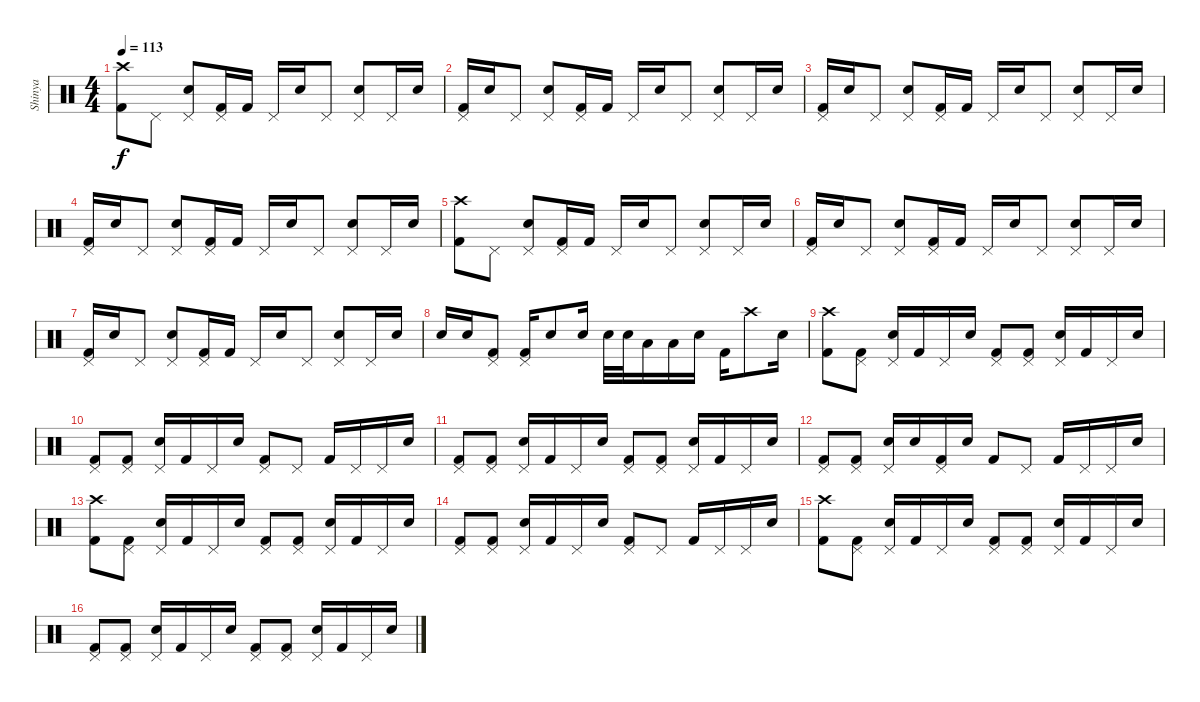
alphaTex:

\track ("Shinya" "Shinya") {instrument percussion}
\staff {score}
\articulation defaults
\ts (4 4)
\tempo 113
\clef neutral
\ks c
("Crash high (hit)" "Kick (hit) 2").8{dy f} "Pedal Hi-Hat (hit)".8 ("Pedal Hi-Hat (hit)" "Electric Snare (hit)").8 ("Pedal Hi-Hat (hit)" "Kick (hit) 2").16 "Kick (hit) 2".16 "Pedal Hi-Hat (hit)".16 "Electric Snare (hit)".16 "Pedal Hi-Hat (hit)".8 ("Pedal Hi-Hat (hit)" "Electric Snare (hit)").8 "Pedal Hi-Hat (hit)".16 "Electric Snare (hit)".16 |
("Pedal Hi-Hat (hit)" "Kick (hit) 2").16 "Electric Snare (hit)".16 "Pedal Hi-Hat (hit)".8 ("Pedal Hi-Hat (hit)" "Electric Snare (hit)").8 ("Pedal Hi-Hat (hit)" "Kick (hit) 2").16 "Kick (hit) 2".16 "Pedal Hi-Hat (hit)".16 "Electric Snare (hit)".16 "Pedal Hi-Hat (hit)".8 ("Pedal Hi-Hat (hit)" "Electric Snare (hit)").8 "Pedal Hi-Hat (hit)".16 "Electric Snare (hit)".16 |
("Pedal Hi-Hat (hit)" "Kick (hit) 2").16 "Electric Snare (hit)".16 "Pedal Hi-Hat (hit)".8 ("Pedal Hi-Hat (hit)" "Electric Snare (hit)").8 ("Pedal Hi-Hat (hit)" "Kick (hit) 2").16 "Kick (hit) 2".16 "Pedal Hi-Hat (hit)".16 "Electric Snare (hit)".16 "Pedal Hi-Hat (hit)".8 ("Pedal Hi-Hat (hit)" "Electric Snare (hit)").8 "Pedal Hi-Hat (hit)".16 "Electric Snare (hit)".16 |
("Pedal Hi-Hat (hit)" "Kick (hit) 2").16 "Electric Snare (hit)".16 "Pedal Hi-Hat (hit)".8 ("Pedal Hi-Hat (hit)" "Electric Snare (hit)").8 ("Pedal Hi-Hat (hit)" "Kick (hit) 2").16 "Kick (hit) 2".16 "Pedal Hi-Hat (hit)".16 "Electric Snare (hit)".16 "Pedal Hi-Hat (hit)".8 ("Pedal Hi-Hat (hit)" "Electric Snare (hit)").8 "Pedal Hi-Hat (hit)".16 "Electric Snare (hit)".16 |
("Crash high (hit)" "Kick (hit) 2").8 "Pedal Hi-Hat (hit)".8 ("Pedal Hi-Hat (hit)" "Electric Snare (hit)").8 ("Pedal Hi-Hat (hit)" "Kick (hit) 2").16 "Kick (hit) 2".16 "Pedal Hi-Hat (hit)".16 "Electric Snare (hit)".16 "Pedal Hi-Hat (hit)".8 ("Pedal Hi-Hat (hit)" "Electric Snare (hit)").8 "Pedal Hi-Hat (hit)".16 "Electric Snare (hit)".16 |
("Pedal Hi-Hat (hit)" "Kick (hit) 2").16 "Electric Snare (hit)".16 "Pedal Hi-Hat (hit)".8 ("Pedal Hi-Hat (hit)" "Electric Snare (hit)").8 ("Pedal Hi-Hat (hit)" "Kick (hit) 2").16 "Kick (hit) 2".16 "Pedal Hi-Hat (hit)".16 "Electric Snare (hit)".16 "Pedal Hi-Hat (hit)".8 ("Pedal Hi-Hat (hit)" "Electric Snare (hit)").8 "Pedal Hi-Hat (hit)".16 "Electric Snare (hit)".16 |
("Pedal Hi-Hat (hit)" "Kick (hit) 2").16 "Electric Snare (hit)".16 "Pedal Hi-Hat (hit)".8 ("Pedal Hi-Hat (hit)" "Electric Snare (hit)").8 ("Pedal Hi-Hat (hit)" "Kick (hit) 2").16 "Kick (hit) 2".16 "Pedal Hi-Hat (hit)".16 "Electric Snare (hit)".16 "Pedal Hi-Hat (hit)".8 ("Pedal Hi-Hat (hit)" "Electric Snare (hit)").8 "Pedal Hi-Hat (hit)".16 "Electric Snare (hit)".16 |
"Electric Snare (hit)".16 "Electric Snare (hit)".16 ("Pedal Hi-Hat (hit)" "Kick (hit) 2").8 ("Pedal Hi-Hat (hit)" "Kick (hit) 2").16 "Electric Snare (hit)".8 "Electric Snare (hit)".16 "Electric Snare (hit)".32 "Electric Snare (hit)".32 "Low Tom (hit)".16 "Low Tom (hit)".16 "Electric Snare (hit)".16 "Kick (hit) 2".16 "Crash high (hit)".8 "Electric Snare (hit)".16 |
("Crash high (hit)" "Kick (hit) 2").8 ("Pedal Hi-Hat (hit)" "Kick (hit) 2").8 ("Pedal Hi-Hat (hit)" "Electric Snare (hit)").16 "Kick (hit) 2".16 "Pedal Hi-Hat (hit)".16 "Electric Snare (hit)".16 ("Pedal Hi-Hat (hit)" "Kick (hit) 2").8 ("Pedal Hi-Hat (hit)" "Kick (hit) 2").8 ("Pedal Hi-Hat (hit)" "Electric Snare (hit)").16 "Kick (hit) 2".16 "Pedal Hi-Hat (hit)".16 "Electric Snare (hit)".16 |
("Pedal Hi-Hat (hit)" "Kick (hit) 2").8 ("Pedal Hi-Hat (hit)" "Kick (hit) 2").8 ("Pedal Hi-Hat (hit)" "Electric Snare (hit)").16 "Kick (hit) 2".16 "Pedal Hi-Hat (hit)".16 "Electric Snare (hit)".16 ("Pedal Hi-Hat (hit)" "Kick (hit) 2").8 "Pedal Hi-Hat (hit)".8 "Kick (hit) 2".16 "Pedal Hi-Hat (hit)".16 "Pedal Hi-Hat (hit)".16 "Electric Snare (hit)".16 |
("Pedal Hi-Hat (hit)" "Kick (hit) 2").8 ("Pedal Hi-Hat (hit)" "Kick (hit) 2").8 ("Pedal Hi-Hat (hit)" "Electric Snare (hit)").16 "Kick (hit) 2".16 "Pedal Hi-Hat (hit)".16 "Electric Snare (hit)".16 ("Pedal Hi-Hat (hit)" "Kick (hit) 2").8 ("Pedal Hi-Hat (hit)" "Kick (hit) 2").8 ("Pedal Hi-Hat (hit)" "Electric Snare (hit)").16 "Kick (hit) 2".16 "Pedal Hi-Hat (hit)".16 "Electric Snare (hit)".16 |
("Pedal Hi-Hat (hit)" "Kick (hit) 2").8 ("Pedal Hi-Hat (hit)" "Kick (hit) 2").8 ("Pedal Hi-Hat (hit)" "Electric Snare (hit)").16 "Electric Snare (hit)".16 ("Pedal Hi-Hat (hit)" "Kick (hit) 2").16 "Electric Snare (hit)".16 "Kick (hit) 2".8 "Pedal Hi-Hat (hit)".8 "Kick (hit) 2".16 "Pedal Hi-Hat (hit)".16 "Pedal Hi-Hat (hit)".16 "Electric Snare (hit)".16 |
("Crash high (hit)" "Kick (hit) 2").8 ("Pedal Hi-Hat (hit)" "Kick (hit) 2").8 ("Pedal Hi-Hat (hit)" "Electric Snare (hit)").16 "Kick (hit) 2".16 "Pedal Hi-Hat (hit)".16 "Electric Snare (hit)".16 ("Pedal Hi-Hat (hit)" "Kick (hit) 2").8 ("Pedal Hi-Hat (hit)" "Kick (hit) 2").8 ("Pedal Hi-Hat (hit)" "Electric Snare (hit)").16 "Kick (hit) 2".16 "Pedal Hi-Hat (hit)".16 "Electric Snare (hit)".16 |
("Pedal Hi-Hat (hit)" "Kick (hit) 2").8 ("Pedal Hi-Hat (hit)" "Kick (hit) 2").8 ("Pedal Hi-Hat (hit)" "Electric Snare (hit)").16 "Kick (hit) 2".16 "Pedal Hi-Hat (hit)".16 "Electric Snare (hit)".16 ("Pedal Hi-Hat (hit)" "Kick (hit) 2").8 "Pedal Hi-Hat (hit)".8 "Kick (hit) 2".16 "Pedal Hi-Hat (hit)".16 "Pedal Hi-Hat (hit)".16 "Electric Snare (hit)".16 |
("Crash high (hit)" "Kick (hit) 2").8 ("Pedal Hi-Hat (hit)" "Kick (hit) 2").8 ("Pedal Hi-Hat (hit)" "Electric Snare (hit)").16 "Kick (hit) 2".16 "Pedal Hi-Hat (hit)".16 "Electric Snare (hit)".16 ("Pedal Hi-Hat (hit)" "Kick (hit) 2").8 ("Pedal Hi-Hat (hit)" "Kick (hit) 2").8 ("Pedal Hi-Hat (hit)" "Electric Snare (hit)").16 "Kick (hit) 2".16 "Pedal Hi-Hat (hit)".16 "Electric Snare (hit)".16 |
("Pedal Hi-Hat (hit)" "Kick (hit) 2").8 ("Pedal Hi-Hat (hit)" "Kick (hit) 2").8 ("Pedal Hi-Hat (hit)" "Electric Snare (hit)").16 "Kick (hit) 2".16 "Pedal Hi-Hat (hit)".16 "Electric Snare (hit)".16 ("Pedal Hi-Hat (hit)" "Kick (hit) 2").8 ("Pedal Hi-Hat (hit)" "Kick (hit) 2").8 ("Pedal Hi-Hat (hit)" "Electric Snare (hit)").16 "Kick (hit) 2".16 "Pedal Hi-Hat (hit)".16 "Electric Snare (hit)".16
